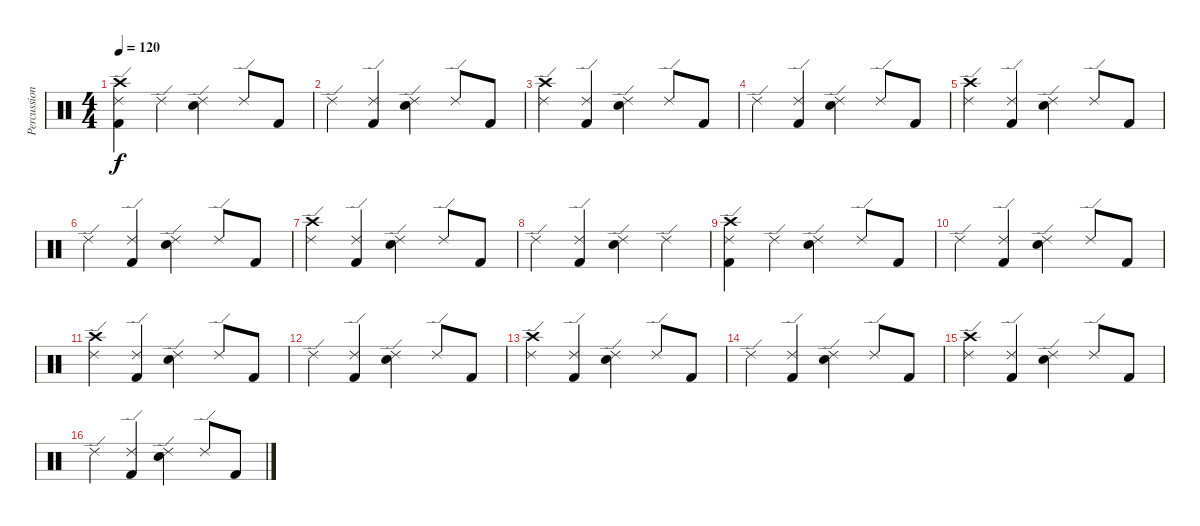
\track ("Percussion" "Percussion") {instrument percussion}
\staff {score}
\articulation defaults
\ts (4 4)
\tempo 120
\clef neutral
\ks c
("Crash high (hit)" "Ride (edge) 2" "Kick (hit) 2").4{dy f} "Ride (edge) 2".4 ("Ride (edge) 2" "Electric Snare (hit)").4 "Ride (edge) 2".8 "Kick (hit) 2".8 |
"Ride (edge) 2".4 ("Ride (edge) 2" "Kick (hit) 2").4 ("Ride (edge) 2" "Electric Snare (hit)").4 "Ride (edge) 2".8 "Kick (hit) 2".8 |
("Crash high (hit)" "Ride (edge) 2").4 ("Ride (edge) 2" "Kick (hit) 2").4 ("Ride (edge) 2" "Electric Snare (hit)").4 "Ride (edge) 2".8 "Kick (hit) 2".8 |
"Ride (edge) 2".4 ("Ride (edge) 2" "Kick (hit) 2").4 ("Ride (edge) 2" "Electric Snare (hit)").4 "Ride (edge) 2".8 "Kick (hit) 2".8 |
("Crash high (hit)" "Ride (edge) 2").4 ("Ride (edge) 2" "Kick (hit) 2").4 ("Ride (edge) 2" "Electric Snare (hit)").4 "Ride (edge) 2".8 "Kick (hit) 2".8 |
"Ride (edge) 2".4 ("Ride (edge) 2" "Kick (hit) 2").4 ("Ride (edge) 2" "Electric Snare (hit)").4 "Ride (edge) 2".8 "Kick (hit) 2".8 |
("Crash high (hit)" "Ride (edge) 2").4 ("Ride (edge) 2" "Kick (hit) 2").4 ("Ride (edge) 2" "Electric Snare (hit)").4 "Ride (edge) 2".8 "Kick (hit) 2".8 |
"Ride (edge) 2".4 ("Ride (edge) 2" "Kick (hit) 2").4 ("Ride (edge) 2" "Electric Snare (hit)").4 "Ride (edge) 2".4 |
("Crash high (hit)" "Ride (edge) 2" "Kick (hit) 2").4 "Ride (edge) 2".4 ("Ride (edge) 2" "Electric Snare (hit)").4 "Ride (edge) 2".8 "Kick (hit) 2".8 |
"Ride (edge) 2".4 ("Ride (edge) 2" "Kick (hit) 2").4 ("Ride (edge) 2" "Electric Snare (hit)").4 "Ride (edge) 2".8 "Kick (hit) 2".8 |
("Crash high (hit)" "Ride (edge) 2").4 ("Ride (edge) 2" "Kick (hit) 2").4 ("Ride (edge) 2" "Electric Snare (hit)").4 "Ride (edge) 2".8 "Kick (hit) 2".8 |
"Ride (edge) 2".4 ("Ride (edge) 2" "Kick (hit) 2").4 ("Ride (edge) 2" "Electric Snare (hit)").4 "Ride (edge) 2".8 "Kick (hit) 2".8 |
("Crash high (hit)" "Ride (edge) 2").4 ("Ride (edge) 2" "Kick (hit) 2").4 ("Ride (edge) 2" "Electric Snare (hit)").4 "Ride (edge) 2".8 "Kick (hit) 2".8 |
"Ride (edge) 2".4 ("Ride (edge) 2" "Kick (hit) 2").4 ("Ride (edge) 2" "Electric Snare (hit)").4 "Ride (edge) 2".8 "Kick (hit) 2".8 |
("Crash high (hit)" "Ride (edge) 2").4 ("Ride (edge) 2" "Kick (hit) 2").4 ("Ride (edge) 2" "Electric Snare (hit)").4 "Ride (edge) 2".8 "Kick (hit) 2".8 |
"Ride (edge) 2".4 ("Ride (edge) 2" "Kick (hit) 2").4 ("Ride (edge) 2" "Electric Snare (hit)").4 "Ride (edge) 2".8 "Kick (hit) 2".8
